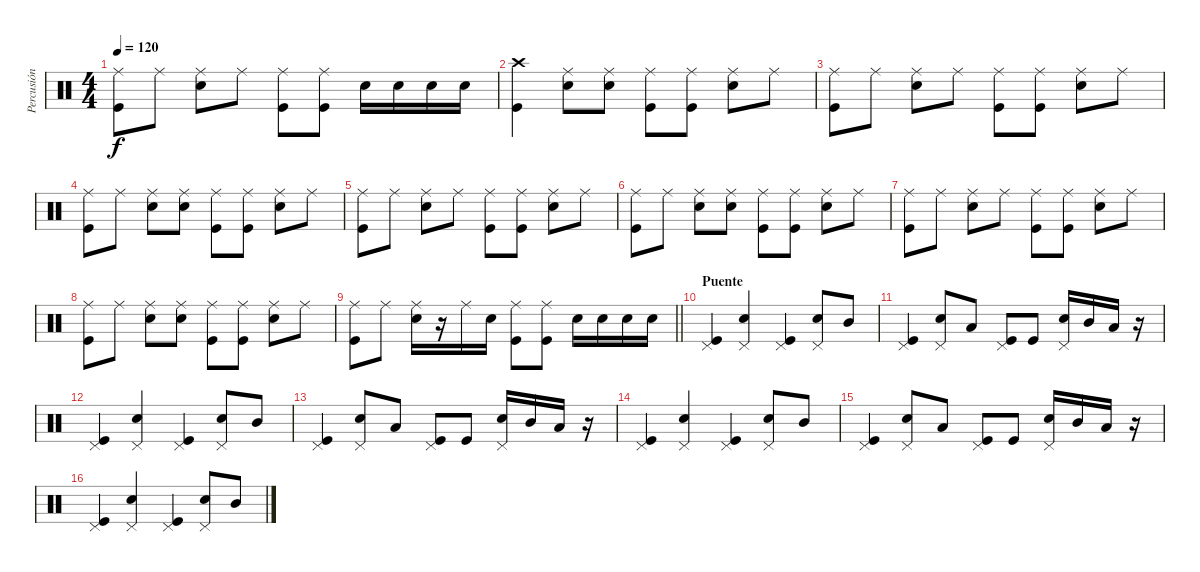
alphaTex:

\track ("Percusión" "Percusión") {instrument percussion}
\staff {score}
\articulation defaults
\ts (4 4)
\tempo 120
\clef neutral
\ks c
("Ride (middle)" "Kick (hit)").8{dy f} "Ride (middle)".8 ("Ride (middle)" "Snare (hit) 2").8 "Ride (middle)".8 ("Ride (middle)" "Kick (hit)").8 ("Ride (middle)" "Kick (hit)").8 "Snare (hit) 2".16 "Snare (hit) 2".16 "Snare (hit) 2".16 "Snare (hit) 2".16 |
("Crash high (hit)" "Kick (hit)").4 ("Ride (middle)" "Snare (hit) 2").8 ("Ride (middle)" "Snare (hit) 2").8 ("Ride (middle)" "Kick (hit)").8 ("Ride (middle)" "Kick (hit)").8 ("Ride (middle)" "Snare (hit) 2").8 "Ride (middle)".8 |
("Ride (middle)" "Kick (hit)").8 "Ride (middle)".8 ("Ride (middle)" "Snare (hit) 2").8 "Ride (middle)".8 ("Ride (middle)" "Kick (hit)").8 ("Ride (middle)" "Kick (hit)").8 ("Ride (middle)" "Snare (hit) 2").8 "Ride (middle)".8 |
("Ride (middle)" "Kick (hit)").8 "Ride (middle)".8 ("Ride (middle)" "Snare (hit) 2").8 ("Ride (middle)" "Snare (hit) 2").8 ("Ride (middle)" "Kick (hit)").8 ("Ride (middle)" "Kick (hit)").8 ("Ride (middle)" "Snare (hit) 2").8 "Ride (middle)".8 |
("Ride (middle)" "Kick (hit)").8 "Ride (middle)".8 ("Ride (middle)" "Snare (hit) 2").8 "Ride (middle)".8 ("Ride (middle)" "Kick (hit)").8 ("Ride (middle)" "Kick (hit)").8 ("Ride (middle)" "Snare (hit) 2").8 "Ride (middle)".8 |
("Ride (middle)" "Kick (hit)").8 "Ride (middle)".8 ("Ride (middle)" "Snare (hit) 2").8 ("Ride (middle)" "Snare (hit) 2").8 ("Ride (middle)" "Kick (hit)").8 ("Ride (middle)" "Kick (hit)").8 ("Ride (middle)" "Snare (hit) 2").8 "Ride (middle)".8 |
("Ride (middle)" "Kick (hit)").8 "Ride (middle)".8 ("Ride (middle)" "Snare (hit) 2").8 "Ride (middle)".8 ("Ride (middle)" "Kick (hit)").8 ("Ride (middle)" "Kick (hit)").8 ("Ride (middle)" "Snare (hit) 2").8 "Ride (middle)".8 |
("Ride (middle)" "Kick (hit)").8 "Ride (middle)".8 ("Ride (middle)" "Snare (hit) 2").8 ("Ride (middle)" "Snare (hit) 2").8 ("Ride (middle)" "Kick (hit)").8 ("Ride (middle)" "Kick (hit)").8 ("Ride (middle)" "Snare (hit) 2").8 "Ride (middle)".8 |
\barLineRight lightlight
("Ride (middle)" "Kick (hit)").8 "Ride (middle)".8 ("Ride (middle)" "Snare (hit) 2").16 r.16 "Ride (middle)".16 "Snare (hit) 2".16 ("Ride (middle)" "Kick (hit)").8 ("Ride (middle)" "Kick (hit)").8 "Snare (hit) 2".16 "Snare (hit) 2".16 "Snare (hit) 2".16 "Snare (hit) 2".16 |
\section ("" "Puente")
("Kick (hit)" "Pedal Hi-Hat (hit)").4 ("Snare (hit) 2" "Pedal Hi-Hat (hit)").4 ("Kick (hit)" "Pedal Hi-Hat (hit)").4 ("Snare (hit) 2" "Pedal Hi-Hat (hit)").8 "Mid Tom (hit)".8 |
("Kick (hit)" "Pedal Hi-Hat (hit)").4 ("Snare (hit) 2" "Pedal Hi-Hat (hit)").8 "Low Tom (hit)".8 ("Kick (hit)" "Pedal Hi-Hat (hit)").8 "Kick (hit)".8 ("Snare (hit) 2" "Pedal Hi-Hat (hit)").16 "Mid Tom (hit)".16 "Low Tom (hit)".16 r.16 |
("Kick (hit)" "Pedal Hi-Hat (hit)").4 ("Snare (hit) 2" "Pedal Hi-Hat (hit)").4 ("Kick (hit)" "Pedal Hi-Hat (hit)").4 ("Snare (hit) 2" "Pedal Hi-Hat (hit)").8 "Mid Tom (hit)".8 |
("Kick (hit)" "Pedal Hi-Hat (hit)").4 ("Snare (hit) 2" "Pedal Hi-Hat (hit)").8 "Low Tom (hit)".8 ("Kick (hit)" "Pedal Hi-Hat (hit)").8 "Kick (hit)".8 ("Snare (hit) 2" "Pedal Hi-Hat (hit)").16 "Mid Tom (hit)".16 "Low Tom (hit)".16 r.16 |
("Kick (hit)" "Pedal Hi-Hat (hit)").4 ("Snare (hit) 2" "Pedal Hi-Hat (hit)").4 ("Kick (hit)" "Pedal Hi-Hat (hit)").4 ("Snare (hit) 2" "Pedal Hi-Hat (hit)").8 "Mid Tom (hit)".8 |
("Kick (hit)" "Pedal Hi-Hat (hit)").4 ("Snare (hit) 2" "Pedal Hi-Hat (hit)").8 "Low Tom (hit)".8 ("Kick (hit)" "Pedal Hi-Hat (hit)").8 "Kick (hit)".8 ("Snare (hit) 2" "Pedal Hi-Hat (hit)").16 "Mid Tom (hit)".16 "Low Tom (hit)".16 r.16 |
("Kick (hit)" "Pedal Hi-Hat (hit)").4 ("Snare (hit) 2" "Pedal Hi-Hat (hit)").4 ("Kick (hit)" "Pedal Hi-Hat (hit)").4 ("Snare (hit) 2" "Pedal Hi-Hat (hit)").8 "Mid Tom (hit)".8
